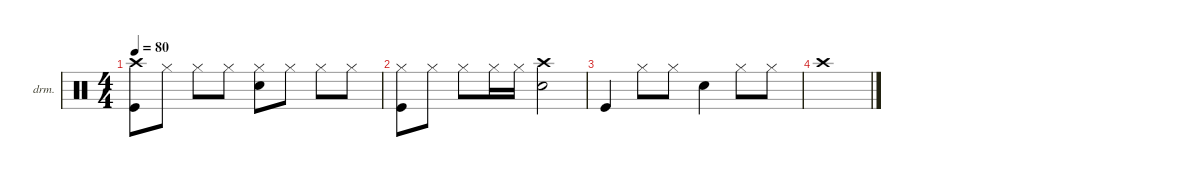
\defaultSystemsLayout 4
\hideDynamics
\bracketExtendMode groupsimilarinstruments
\firstSystemTrackNameOrientation horizontal
\otherSystemsTrackNameOrientation horizontal
\track ("drum" "drm.") {instrument percussion}
\staff {score}
\articulation defaults
\ts (4 4)
\tempo 80
\clef neutral
\ks c
("Crash high (hit)" "Kick (hit)").8{dy f} "Hi-Hat (closed)".8 "Hi-Hat (closed)".8 "Hi-Hat (closed)".8 ("Hi-Hat (closed)" "Snare (hit) 2").8 "Hi-Hat (closed)".8 "Hi-Hat (closed)".8 "Hi-Hat (closed)".8 |
("Hi-Hat (closed)" "Kick (hit)").8 "Hi-Hat (closed)".8 "Hi-Hat (closed)".8 "Hi-Hat (closed)".16 "Hi-Hat (closed)".16 ("Crash high (hit)" "Snare (hit) 2").2 |
"Kick (hit)".4 "Hi-Hat (closed)".8 "Hi-Hat (closed)".8 "Snare (hit) 2".4 "Hi-Hat (closed)".8 "Hi-Hat (closed)".8 |
"Crash high (hit)".1
